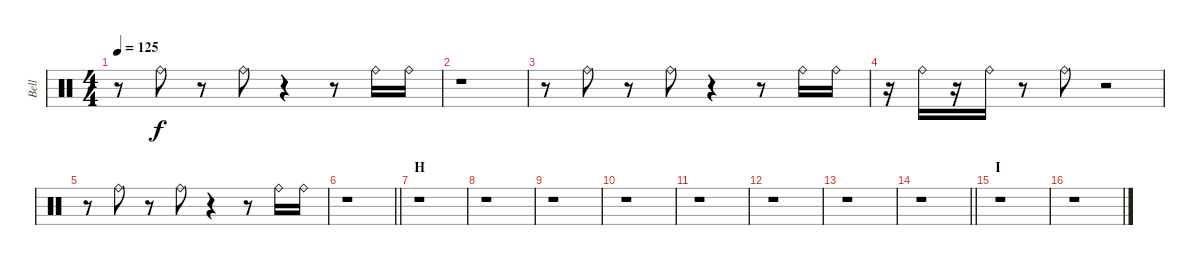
\track ("Bell" "Bell") {instrument percussion}
\staff {score}
\articulation defaults
\ts (4 4)
\tempo 125
\clef neutral
\ks c
r.8{dy f} "Ride (bell)".8 r.8 "Ride (bell)".8 r.4 r.8 "Ride (bell)".16 "Ride (bell)".16 |
r.1 |
r.8 "Ride (bell)".8 r.8 "Ride (bell)".8 r.4 r.8 "Ride (bell)".16 "Ride (bell)".16 |
r.16 "Ride (bell)".16 r.16 "Ride (bell)".16 r.8 "Ride (bell)".8 r.2 |
r.8 "Ride (bell)".8 r.8 "Ride (bell)".8 r.4 r.8 "Ride (bell)".16 "Ride (bell)".16 |
\barLineRight lightlight
r.1 |
\section ("" "H")
r.1 |
r.1 |
r.1 |
r.1 |
r.1 |
r.1 |
r.1 |
\barLineRight lightlight
r.1 |
\section ("" "I")
r.1 |
r.1
